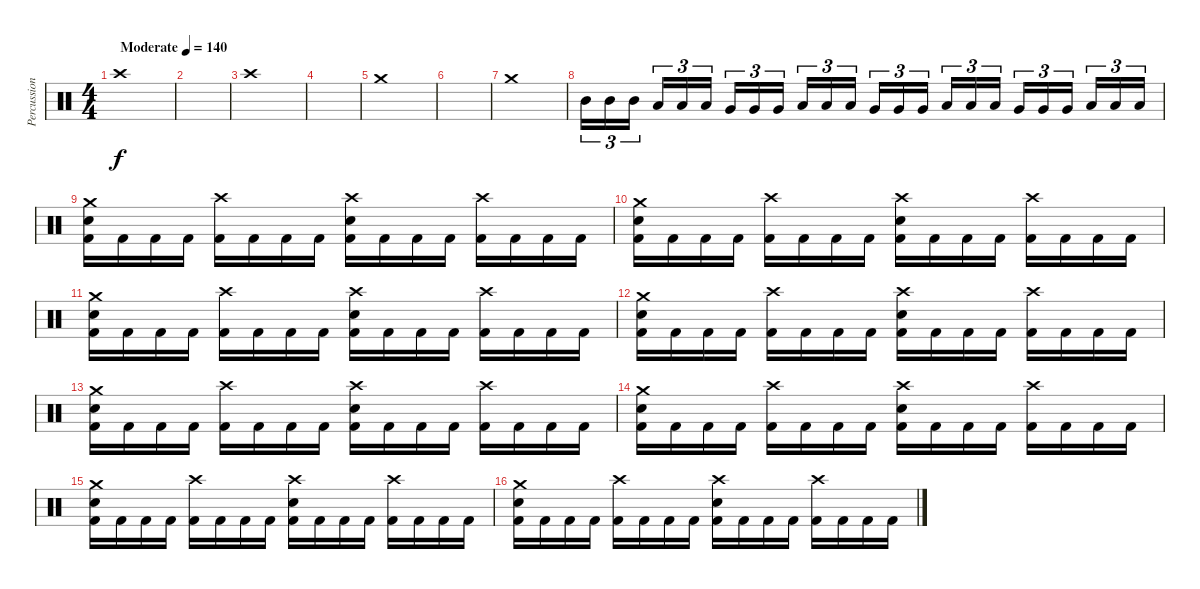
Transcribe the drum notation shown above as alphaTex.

\track ("Percussion" "Percussion") {instrument percussion}
\staff {score}
\articulation defaults
\ts (4 4)
\tempo (140 "Moderate")
\clef neutral
\ks c "Crash high (hit)".1{dy f}
|
|
"Crash high (hit)".1 |
|
"Crash medium (hit)".1 |
|
"Crash medium (hit)".1 |
"Mid Tom (hit)".16{tu (3 2)} "Mid Tom (hit)".16{tu (3 2)} "Mid Tom (hit)".16{tu (3 2) beam splitsecondary} "Low Tom (hit)".16{tu (3 2)} "Low Tom (hit)".16{tu (3 2)} "Low Tom (hit)".16{tu (3 2)} "Very Low Tom (hit)".16{tu (3 2)} "Very Low Tom (hit)".16{tu (3 2)} "Very Low Tom (hit)".16{tu (3 2) beam splitsecondary} "Low Tom (hit)".16{tu (3 2)} "Low Tom (hit)".16{tu (3 2)} "Low Tom (hit)".16{tu (3 2)} "Very Low Tom (hit)".16{tu (3 2)} "Very Low Tom (hit)".16{tu (3 2)} "Very Low Tom (hit)".16{tu (3 2) beam splitsecondary} "Low Floor Tom (hit)".16{tu (3 2)} "Low Floor Tom (hit)".16{tu (3 2)} "Low Floor Tom (hit)".16{tu (3 2)} "Very Low Tom (hit)".16{tu (3 2)} "Very Low Tom (hit)".16{tu (3 2)} "Very Low Tom (hit)".16{tu (3 2) beam splitsecondary} "Low Floor Tom (hit)".16{tu (3 2)} "Low Floor Tom (hit)".16{tu (3 2)} "Low Floor Tom (hit)".16{tu (3 2)} |
("Crash medium (hit)" "Snare (hit) 2" "Kick (hit) 2").16 "Kick (hit) 2".16 "Kick (hit) 2".16 "Kick (hit) 2".16 ("Crash high (hit)" "Kick (hit) 2").16 "Kick (hit) 2".16 "Kick (hit) 2".16 "Kick (hit) 2".16 ("Crash high (hit)" "Snare (hit) 2" "Kick (hit) 2").16 "Kick (hit) 2".16 "Kick (hit) 2".16 "Kick (hit) 2".16 ("Crash high (hit)" "Kick (hit) 2").16 "Kick (hit) 2".16 "Kick (hit) 2".16 "Kick (hit) 2".16 |
("Crash medium (hit)" "Snare (hit) 2" "Kick (hit) 2").16 "Kick (hit) 2".16 "Kick (hit) 2".16 "Kick (hit) 2".16 ("Crash high (hit)" "Kick (hit) 2").16 "Kick (hit) 2".16 "Kick (hit) 2".16 "Kick (hit) 2".16 ("Crash high (hit)" "Snare (hit) 2" "Kick (hit) 2").16 "Kick (hit) 2".16 "Kick (hit) 2".16 "Kick (hit) 2".16 ("Crash high (hit)" "Kick (hit) 2").16 "Kick (hit) 2".16 "Kick (hit) 2".16 "Kick (hit) 2".16 |
("Crash medium (hit)" "Snare (hit) 2" "Kick (hit) 2").16 "Kick (hit) 2".16 "Kick (hit) 2".16 "Kick (hit) 2".16 ("Crash high (hit)" "Kick (hit) 2").16 "Kick (hit) 2".16 "Kick (hit) 2".16 "Kick (hit) 2".16 ("Crash high (hit)" "Snare (hit) 2" "Kick (hit) 2").16 "Kick (hit) 2".16 "Kick (hit) 2".16 "Kick (hit) 2".16 ("Crash high (hit)" "Kick (hit) 2").16 "Kick (hit) 2".16 "Kick (hit) 2".16 "Kick (hit) 2".16 |
("Crash medium (hit)" "Snare (hit) 2" "Kick (hit) 2").16 "Kick (hit) 2".16 "Kick (hit) 2".16 "Kick (hit) 2".16 ("Crash high (hit)" "Kick (hit) 2").16 "Kick (hit) 2".16 "Kick (hit) 2".16 "Kick (hit) 2".16 ("Crash high (hit)" "Snare (hit) 2" "Kick (hit) 2").16 "Kick (hit) 2".16 "Kick (hit) 2".16 "Kick (hit) 2".16 ("Crash high (hit)" "Kick (hit) 2").16 "Kick (hit) 2".16 "Kick (hit) 2".16 "Kick (hit) 2".16 |
("Crash medium (hit)" "Snare (hit) 2" "Kick (hit) 2").16 "Kick (hit) 2".16 "Kick (hit) 2".16 "Kick (hit) 2".16 ("Crash high (hit)" "Kick (hit) 2").16 "Kick (hit) 2".16 "Kick (hit) 2".16 "Kick (hit) 2".16 ("Crash high (hit)" "Snare (hit) 2" "Kick (hit) 2").16 "Kick (hit) 2".16 "Kick (hit) 2".16 "Kick (hit) 2".16 ("Crash high (hit)" "Kick (hit) 2").16 "Kick (hit) 2".16 "Kick (hit) 2".16 "Kick (hit) 2".16 |
("Crash medium (hit)" "Snare (hit) 2" "Kick (hit) 2").16 "Kick (hit) 2".16 "Kick (hit) 2".16 "Kick (hit) 2".16 ("Crash high (hit)" "Kick (hit) 2").16 "Kick (hit) 2".16 "Kick (hit) 2".16 "Kick (hit) 2".16 ("Crash high (hit)" "Snare (hit) 2" "Kick (hit) 2").16 "Kick (hit) 2".16 "Kick (hit) 2".16 "Kick (hit) 2".16 ("Crash high (hit)" "Kick (hit) 2").16 "Kick (hit) 2".16 "Kick (hit) 2".16 "Kick (hit) 2".16 |
("Crash medium (hit)" "Snare (hit) 2" "Kick (hit) 2").16 "Kick (hit) 2".16 "Kick (hit) 2".16 "Kick (hit) 2".16 ("Crash high (hit)" "Kick (hit) 2").16 "Kick (hit) 2".16 "Kick (hit) 2".16 "Kick (hit) 2".16 ("Crash high (hit)" "Snare (hit) 2" "Kick (hit) 2").16 "Kick (hit) 2".16 "Kick (hit) 2".16 "Kick (hit) 2".16 ("Crash high (hit)" "Kick (hit) 2").16 "Kick (hit) 2".16 "Kick (hit) 2".16 "Kick (hit) 2".16 |
("Crash medium (hit)" "Snare (hit) 2" "Kick (hit) 2").16 "Kick (hit) 2".16 "Kick (hit) 2".16 "Kick (hit) 2".16 ("Crash high (hit)" "Kick (hit) 2").16 "Kick (hit) 2".16 "Kick (hit) 2".16 "Kick (hit) 2".16 ("Crash high (hit)" "Snare (hit) 2" "Kick (hit) 2").16 "Kick (hit) 2".16 "Kick (hit) 2".16 "Kick (hit) 2".16 ("Crash high (hit)" "Kick (hit) 2").16 "Kick (hit) 2".16 "Kick (hit) 2".16 "Kick (hit) 2".16
